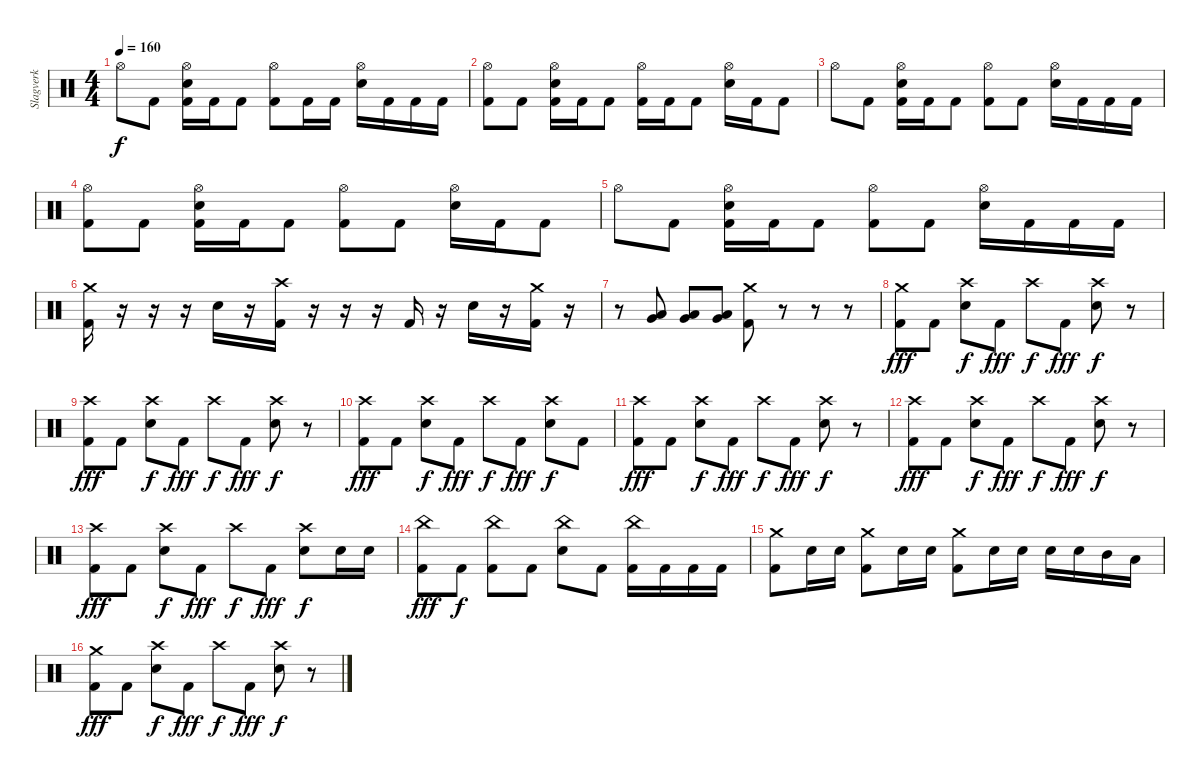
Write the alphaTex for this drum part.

\track ("Slagverk" "Slagverk") {instrument percussion}
\staff {score}
\articulation defaults
\ts (4 4)
\tempo 160
\clef neutral
\ks c "Hi-Hat (open)".8{dy f} "Kick (hit) 2".8
("Hi-Hat (open)" "Snare (hit) 2" "Kick (hit) 2").16 "Kick (hit) 2".16 "Kick (hit) 2".8 ("Hi-Hat (open)" "Kick (hit) 2").8 "Kick (hit) 2".16 "Kick (hit) 2".16 ("Hi-Hat (open)" "Snare (hit) 2").16 "Kick (hit) 2".16 "Kick (hit) 2".16 "Kick (hit) 2".16 |
("Hi-Hat (open)" "Kick (hit) 2").8 "Kick (hit) 2".8 ("Hi-Hat (open)" "Snare (hit) 2" "Kick (hit) 2").16 "Kick (hit) 2".16 "Kick (hit) 2".8 ("Hi-Hat (open)" "Kick (hit) 2").16 "Kick (hit) 2".16 "Kick (hit) 2".8 ("Hi-Hat (open)" "Snare (hit) 2").16 "Kick (hit) 2".16 "Kick (hit) 2".8 |
"Hi-Hat (open)".8 "Kick (hit) 2".8 ("Hi-Hat (open)" "Snare (hit) 2" "Kick (hit) 2").16 "Kick (hit) 2".16 "Kick (hit) 2".8 ("Hi-Hat (open)" "Kick (hit) 2").8 "Kick (hit) 2".8 ("Hi-Hat (open)" "Snare (hit) 2").16 "Kick (hit) 2".16 "Kick (hit) 2".16 "Kick (hit) 2".16 |
("Hi-Hat (open)" "Kick (hit) 2").8 "Kick (hit) 2".8 ("Hi-Hat (open)" "Snare (hit) 2" "Kick (hit) 2").16 "Kick (hit) 2".16 "Kick (hit) 2".8 ("Hi-Hat (open)" "Kick (hit) 2").8 "Kick (hit) 2".8 ("Hi-Hat (open)" "Snare (hit) 2").16 "Kick (hit) 2".16 "Kick (hit) 2".8 |
"Hi-Hat (open)".8 "Kick (hit) 2".8 ("Hi-Hat (open)" "Snare (hit) 2" "Kick (hit) 2").16 "Kick (hit) 2".16 "Kick (hit) 2".8 ("Hi-Hat (open)" "Kick (hit) 2").8 "Kick (hit) 2".8 ("Hi-Hat (open)" "Snare (hit) 2").16 "Kick (hit) 2".16 "Kick (hit) 2".16 "Kick (hit) 2".16 |
("Crash medium (hit)" "Kick (hit) 2").16 r.16 r.16 r.16 "Snare (hit) 2".16 r.16 ("Crash high (hit)" "Kick (hit) 2").16 r.16 r.16 r.16 "Kick (hit) 2".16 r.16 "Snare (hit) 2".16 r.16 ("Crash medium (hit)" "Kick (hit) 2").16 r.16 |
r.8 ("Very Low Tom (hit)" "Low Tom (hit)").8 ("Very Low Tom (hit)" "Low Tom (hit)").8 ("Very Low Tom (hit)" "Low Tom (hit)").8 ("Crash medium (hit)" "Kick (hit) 2").8 r.8 r.8 r.8 |
("Crash medium (hit)" "Kick (hit) 2").8{dy fff} "Kick (hit) 2".8 ("Crash high (hit)" "Snare (hit) 2").8{dy f} "Kick (hit) 2".8{dy fff} "Crash high (hit)".8{dy f} "Kick (hit) 2".8{dy fff} ("Crash high (hit)" "Snare (hit) 2").8{dy f} r.8 |
("Crash high (hit)" "Kick (hit) 2").8{dy fff} "Kick (hit) 2".8 ("Crash high (hit)" "Snare (hit) 2").8{dy f} "Kick (hit) 2".8{dy fff} "Crash high (hit)".8{dy f} "Kick (hit) 2".8{dy fff} ("Crash high (hit)" "Snare (hit) 2").8{dy f} r.8 |
("Crash high (hit)" "Kick (hit) 2").8{dy fff} "Kick (hit) 2".8 ("Crash high (hit)" "Snare (hit) 2").8{dy f} "Kick (hit) 2".8{dy fff} "Crash high (hit)".8{dy f} "Kick (hit) 2".8{dy fff} ("Crash high (hit)" "Snare (hit) 2").8{dy f} "Kick (hit) 2".8 |
("Crash high (hit)" "Kick (hit) 2").8{dy fff} "Kick (hit) 2".8 ("Crash high (hit)" "Snare (hit) 2").8{dy f} "Kick (hit) 2".8{dy fff} "Crash high (hit)".8{dy f} "Kick (hit) 2".8{dy fff} ("Crash high (hit)" "Snare (hit) 2").8{dy f} r.8 |
("Crash high (hit)" "Kick (hit) 2").8{dy fff} "Kick (hit) 2".8 ("Crash high (hit)" "Snare (hit) 2").8{dy f} "Kick (hit) 2".8{dy fff} "Crash high (hit)".8{dy f} "Kick (hit) 2".8{dy fff} ("Crash high (hit)" "Snare (hit) 2").8{dy f} r.8 |
("Crash high (hit)" "Kick (hit) 2").8{dy fff} "Kick (hit) 2".8 ("Crash high (hit)" "Snare (hit) 2").8{dy f} "Kick (hit) 2".8{dy fff} "Crash high (hit)".8{dy f} "Kick (hit) 2".8{dy fff} ("Crash high (hit)" "Snare (hit) 2").8{dy f} "Snare (hit) 2".16 "Snare (hit) 2".16 |
("China (hit)" "Kick (hit) 2").8{dy fff} "Kick (hit) 2".8{dy f} ("China (hit)" "Kick (hit) 2").8 "Kick (hit) 2".8 ("China (hit)" "Snare (hit) 2").8 "Kick (hit) 2".8 ("China (hit)" "Kick (hit) 2").16 "Kick (hit) 2".16 "Kick (hit) 2".16 "Kick (hit) 2".16 |
("Crash medium (hit)" "Kick (hit) 2").8 "Snare (hit) 2".16 "Snare (hit) 2".16 ("Crash medium (hit)" "Kick (hit) 2").8 "Snare (hit) 2".16 "Snare (hit) 2".16 ("Crash medium (hit)" "Kick (hit) 2").8 "Snare (hit) 2".16 "Snare (hit) 2".16 "Snare (hit) 2".16 "Snare (hit) 2".16 "Mid Tom (hit)".16 "Low Tom (hit)".16 |
("Crash medium (hit)" "Kick (hit) 2").8{dy fff} "Kick (hit) 2".8 ("Crash high (hit)" "Snare (hit) 2").8{dy f} "Kick (hit) 2".8{dy fff} "Crash high (hit)".8{dy f} "Kick (hit) 2".8{dy fff} ("Crash high (hit)" "Snare (hit) 2").8{dy f} r.8
